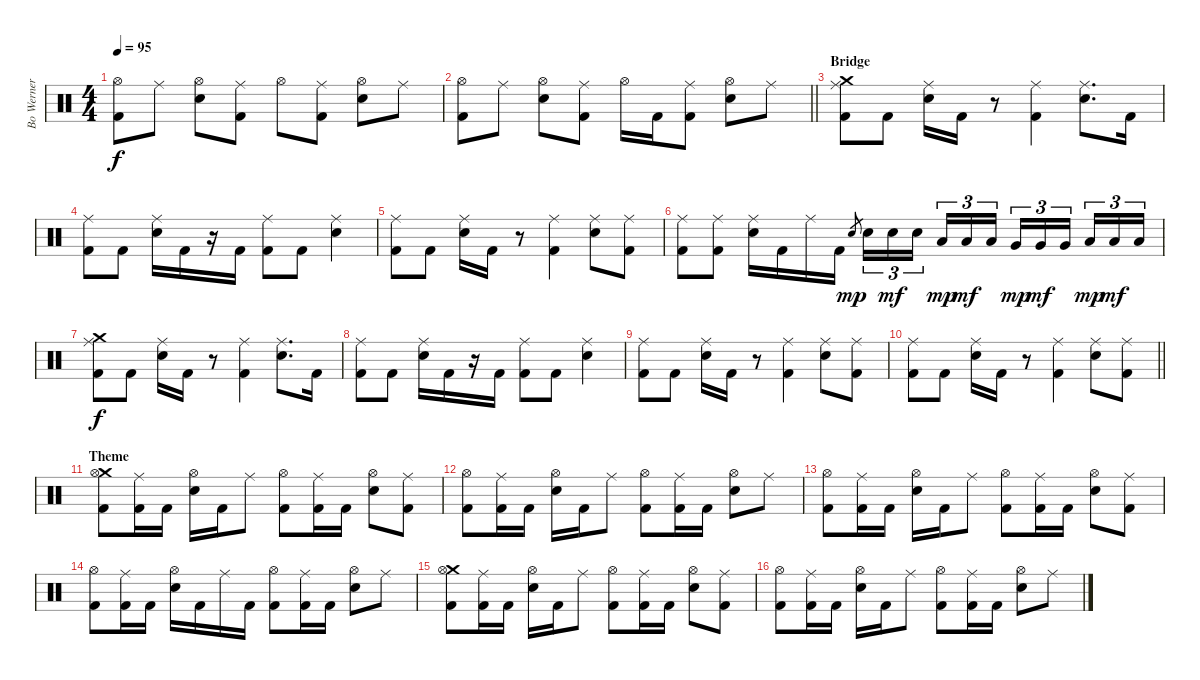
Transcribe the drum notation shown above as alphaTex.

\track ("Bo Werner" "Bo Werner") {instrument percussion}
\staff {score}
\articulation defaults
\ts (4 4)
\tempo 95
\clef neutral
\ks c
("Hi-Hat (open)" "Kick (hit) 2").8{dy f} "Ride (middle)".8 ("Hi-Hat (open)" "Snare (hit) 2").8 ("Ride (middle)" "Kick (hit) 2").8 "Hi-Hat (open)".8 ("Ride (middle)" "Kick (hit) 2").8 ("Hi-Hat (open)" "Snare (hit) 2").8 "Ride (middle)".8 |
\barLineRight lightlight
("Hi-Hat (open)" "Kick (hit) 2").8 "Ride (middle)".8 ("Hi-Hat (open)" "Snare (hit) 2").8 ("Ride (middle)" "Kick (hit) 2").8 "Hi-Hat (open)".16 "Kick (hit) 2".16 ("Ride (middle)" "Kick (hit) 2").8 ("Hi-Hat (open)" "Snare (hit) 2").8 "Ride (middle)".8 |
\section ("" "Bridge")
("Crash medium (hit)" "Ride (middle)" "Kick (hit) 2").8 "Kick (hit) 2".8 ("Ride (middle)" "Snare (hit) 2").16 "Kick (hit) 2".16 r.8 ("Ride (middle)" "Kick (hit) 2").4 ("Ride (middle)" "Snare (hit) 2").8{d} "Kick (hit) 2".16 |
("Ride (middle)" "Kick (hit) 2").8 "Kick (hit) 2".8 ("Ride (middle)" "Snare (hit) 2").16 "Kick (hit) 2".16 r.16 "Kick (hit) 2".16 ("Ride (middle)" "Kick (hit) 2").8 "Kick (hit) 2".8 ("Ride (middle)" "Snare (hit) 2").4 |
("Ride (middle)" "Kick (hit) 2").8 "Kick (hit) 2".8 ("Ride (middle)" "Snare (hit) 2").16 "Kick (hit) 2".16 r.8 ("Ride (middle)" "Kick (hit) 2").4 ("Ride (middle)" "Snare (hit) 2").8 ("Ride (middle)" "Kick (hit) 2").8 |
("Ride (middle)" "Kick (hit) 2").8 ("Ride (middle)" "Kick (hit) 2").8 ("Ride (middle)" "Snare (hit) 2").16 "Kick (hit) 2".16 "Ride (middle)".16 "Kick (hit) 2".16 "Snare (hit) 2".8{gr dy mp} "Snare (hit) 2".16{tu (3 2)} "Snare (hit) 2".16{tu (3 2) dy mf} "Snare (hit) 2".16{tu (3 2) beam splitsecondary} "Low Tom (hit)".16{tu (3 2) dy mp} "Low Tom (hit)".16{tu (3 2) dy mf} "Low Tom (hit)".16{tu (3 2)} "Very Low Tom (hit)".16{tu (3 2) dy mp} "Very Low Tom (hit)".16{tu (3 2) dy mf} "Very Low Tom (hit)".16{tu (3 2) beam splitsecondary} "Low Floor Tom (hit)".16{tu (3 2) dy mp} "Low Floor Tom (hit)".16{tu (3 2) dy mf} "Low Floor Tom (hit)".16{tu (3 2)} |
("Crash medium (hit)" "Ride (middle)" "Kick (hit) 2").8{dy f} "Kick (hit) 2".8 ("Ride (middle)" "Snare (hit) 2").16 "Kick (hit) 2".16 r.8 ("Ride (middle)" "Kick (hit) 2").4 ("Ride (middle)" "Snare (hit) 2").8{d} "Kick (hit) 2".16 |
("Ride (middle)" "Kick (hit) 2").8 "Kick (hit) 2".8 ("Ride (middle)" "Snare (hit) 2").16 "Kick (hit) 2".16 r.16 "Kick (hit) 2".16 ("Ride (middle)" "Kick (hit) 2").8 "Kick (hit) 2".8 ("Ride (middle)" "Snare (hit) 2").4 |
("Ride (middle)" "Kick (hit) 2").8 "Kick (hit) 2".8 ("Ride (middle)" "Snare (hit) 2").16 "Kick (hit) 2".16 r.8 ("Ride (middle)" "Kick (hit) 2").4 ("Ride (middle)" "Snare (hit) 2").8 ("Ride (middle)" "Kick (hit) 2").8 |
\barLineRight lightlight
("Ride (middle)" "Kick (hit) 2").8 "Kick (hit) 2".8 ("Ride (middle)" "Snare (hit) 2").16 "Kick (hit) 2".16 r.8 ("Ride (middle)" "Kick (hit) 2").4 ("Ride (middle)" "Snare (hit) 2").8 ("Ride (middle)" "Kick (hit) 2").8 |
\section ("" "Theme")
("Crash medium (hit)" "Hi-Hat (open)" "Kick (hit) 2").8 ("Ride (middle)" "Kick (hit) 2").16 "Kick (hit) 2".16 ("Hi-Hat (open)" "Snare (hit) 2").16 "Kick (hit) 2".16 "Ride (middle)".8 ("Hi-Hat (open)" "Kick (hit) 2").8 ("Ride (middle)" "Kick (hit) 2").16 "Kick (hit) 2".16 ("Hi-Hat (open)" "Snare (hit) 2").8 ("Ride (middle)" "Kick (hit) 2").8 |
("Hi-Hat (open)" "Kick (hit) 2").8 ("Ride (middle)" "Kick (hit) 2").16 "Kick (hit) 2".16 ("Hi-Hat (open)" "Snare (hit) 2").16 "Kick (hit) 2".16 "Ride (middle)".8 ("Hi-Hat (open)" "Kick (hit) 2").8 ("Ride (middle)" "Kick (hit) 2").16 "Kick (hit) 2".16 ("Hi-Hat (open)" "Snare (hit) 2").8 "Ride (middle)".8 |
("Hi-Hat (open)" "Kick (hit) 2").8 ("Ride (middle)" "Kick (hit) 2").16 "Kick (hit) 2".16 ("Hi-Hat (open)" "Snare (hit) 2").16 "Kick (hit) 2".16 "Ride (middle)".8 ("Hi-Hat (open)" "Kick (hit) 2").8 ("Ride (middle)" "Kick (hit) 2").16 "Kick (hit) 2".16 ("Hi-Hat (open)" "Snare (hit) 2").8 ("Ride (middle)" "Kick (hit) 2").8 |
("Hi-Hat (open)" "Kick (hit) 2").8 ("Ride (middle)" "Kick (hit) 2").16 "Kick (hit) 2".16 ("Hi-Hat (open)" "Snare (hit) 2").16 "Kick (hit) 2".16 "Ride (middle)".16 "Kick (hit) 2".16 ("Hi-Hat (open)" "Kick (hit) 2").8 ("Ride (middle)" "Kick (hit) 2").16 "Kick (hit) 2".16 ("Hi-Hat (open)" "Snare (hit) 2").8 "Ride (middle)".8 |
("Crash medium (hit)" "Hi-Hat (open)" "Kick (hit) 2").8 ("Ride (middle)" "Kick (hit) 2").16 "Kick (hit) 2".16 ("Hi-Hat (open)" "Snare (hit) 2").16 "Kick (hit) 2".16 "Ride (middle)".8 ("Hi-Hat (open)" "Kick (hit) 2").8 ("Ride (middle)" "Kick (hit) 2").16 "Kick (hit) 2".16 ("Hi-Hat (open)" "Snare (hit) 2").8 ("Ride (middle)" "Kick (hit) 2").8 |
("Hi-Hat (open)" "Kick (hit) 2").8 ("Ride (middle)" "Kick (hit) 2").16 "Kick (hit) 2".16 ("Hi-Hat (open)" "Snare (hit) 2").16 "Kick (hit) 2".16 "Ride (middle)".8 ("Hi-Hat (open)" "Kick (hit) 2").8 ("Ride (middle)" "Kick (hit) 2").16 "Kick (hit) 2".16 ("Hi-Hat (open)" "Snare (hit) 2").8 "Ride (middle)".8
